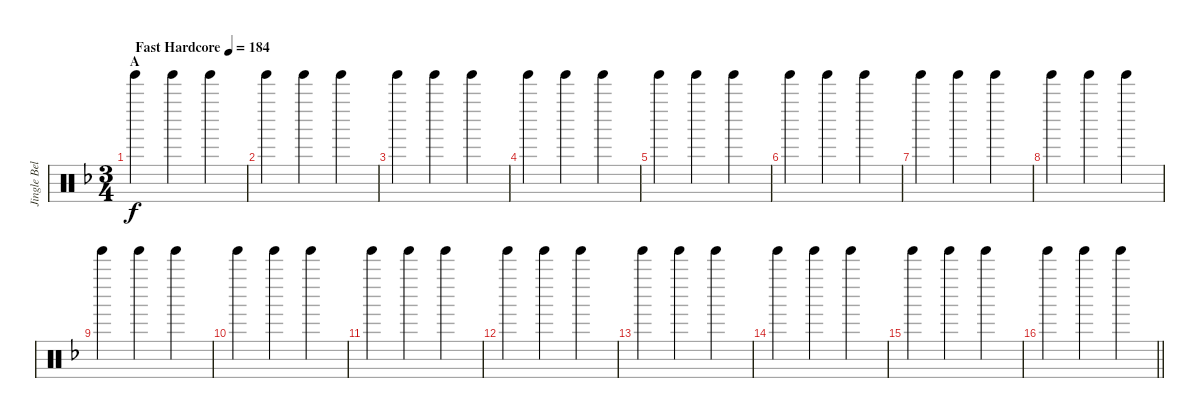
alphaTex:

\track ("Jingle Bells" "Jingle Bel") {instrument percussion}
\staff {score}
\articulation defaults
\ts (3 4)
\section ("" "A")
\tempo (184 "Fast Hardcore")
\clef neutral
\ks f "Tinkle Bell (hit)".4{dy f volume 1} "Tinkle Bell (hit)".4{volume 14} "Tinkle Bell (hit)".4
|
"Tinkle Bell (hit)".4 "Tinkle Bell (hit)".4 "Tinkle Bell (hit)".4 |
"Tinkle Bell (hit)".4 "Tinkle Bell (hit)".4 "Tinkle Bell (hit)".4 |
"Tinkle Bell (hit)".4 "Tinkle Bell (hit)".4 "Tinkle Bell (hit)".4 |
"Tinkle Bell (hit)".4 "Tinkle Bell (hit)".4 "Tinkle Bell (hit)".4 |
"Tinkle Bell (hit)".4 "Tinkle Bell (hit)".4 "Tinkle Bell (hit)".4 |
"Tinkle Bell (hit)".4 "Tinkle Bell (hit)".4 "Tinkle Bell (hit)".4 |
"Tinkle Bell (hit)".4 "Tinkle Bell (hit)".4 "Tinkle Bell (hit)".4 |
"Tinkle Bell (hit)".4 "Tinkle Bell (hit)".4 "Tinkle Bell (hit)".4 |
"Tinkle Bell (hit)".4 "Tinkle Bell (hit)".4 "Tinkle Bell (hit)".4 |
"Tinkle Bell (hit)".4 "Tinkle Bell (hit)".4 "Tinkle Bell (hit)".4 |
"Tinkle Bell (hit)".4 "Tinkle Bell (hit)".4 "Tinkle Bell (hit)".4 |
"Tinkle Bell (hit)".4 "Tinkle Bell (hit)".4 "Tinkle Bell (hit)".4 |
"Tinkle Bell (hit)".4 "Tinkle Bell (hit)".4 "Tinkle Bell (hit)".4 |
"Tinkle Bell (hit)".4 "Tinkle Bell (hit)".4 "Tinkle Bell (hit)".4 |
\barLineRight lightlight "Tinkle Bell (hit)".4 "Tinkle Bell (hit)".4 "Tinkle Bell (hit)".4
